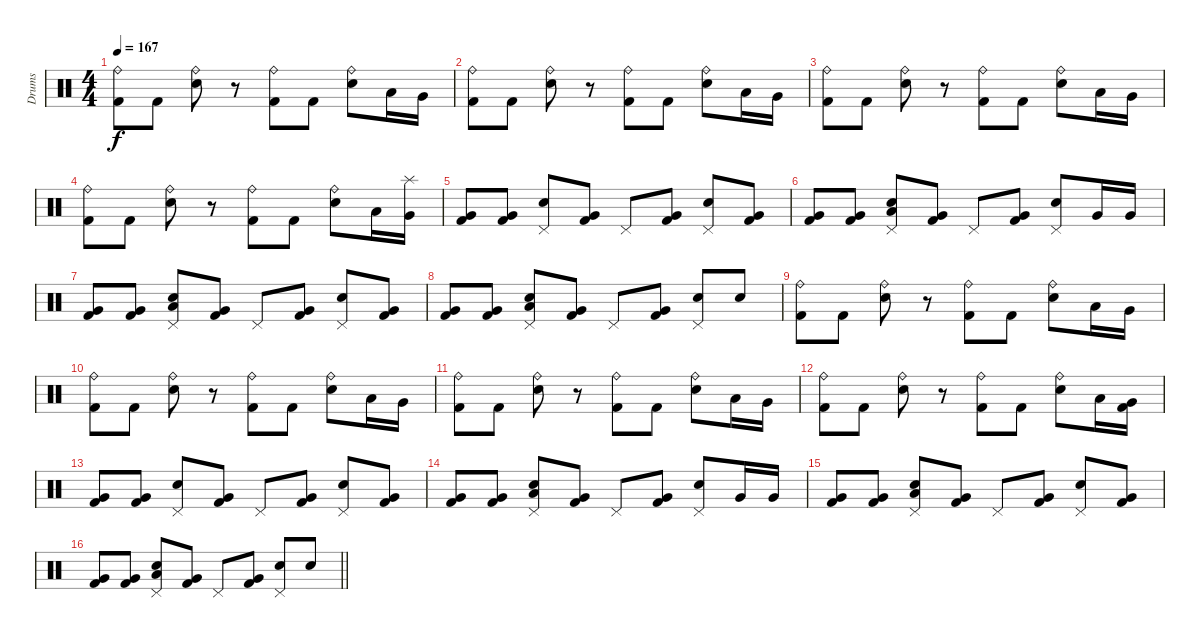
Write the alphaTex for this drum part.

\track ("Drums" "Drums") {instrument percussion}
\staff {score}
\articulation defaults
\ts (4 4)
\tempo 167
\clef neutral
\ks c
("Ride (bell)" "Kick (hit) 2").8{dy f} "Kick (hit) 2".8 ("Ride (bell)" "Electric Snare (hit)").8 r.8 ("Ride (bell)" "Kick (hit) 2").8 "Kick (hit) 2".8 ("Ride (bell)" "Electric Snare (hit)").8 "Low Tom (hit)".16 "Very Low Tom (hit)".16 |
("Ride (bell)" "Kick (hit) 2").8 "Kick (hit) 2".8 ("Ride (bell)" "Electric Snare (hit)").8 r.8 ("Ride (bell)" "Kick (hit) 2").8 "Kick (hit) 2".8 ("Ride (bell)" "Electric Snare (hit)").8 "Low Tom (hit)".16 "Very Low Tom (hit)".16 |
("Ride (bell)" "Kick (hit) 2").8 "Kick (hit) 2".8 ("Ride (bell)" "Electric Snare (hit)").8 r.8 ("Ride (bell)" "Kick (hit) 2").8 "Kick (hit) 2".8 ("Ride (bell)" "Electric Snare (hit)").8 "Low Tom (hit)".16 "Very Low Tom (hit)".16 |
("Ride (bell)" "Kick (hit) 2").8 "Kick (hit) 2".8 ("Ride (bell)" "Electric Snare (hit)").8 r.8 ("Ride (bell)" "Kick (hit) 2").8 "Kick (hit) 2".8 ("Ride (bell)" "Electric Snare (hit)").8 "Low Tom (hit)".16 ("Very Low Tom (hit)" "Splash (hit)").16 |
("Very Low Tom (hit)" "Kick (hit) 2").8 ("Very Low Tom (hit)" "Kick (hit) 2").8 ("Electric Snare (hit)" "Pedal Hi-Hat (hit)").8 ("Very Low Tom (hit)" "Kick (hit) 2").8 "Pedal Hi-Hat (hit)".8 ("Very Low Tom (hit)" "Kick (hit) 2").8 ("Electric Snare (hit)" "Pedal Hi-Hat (hit)").8 ("Very Low Tom (hit)" "Kick (hit) 2").8 |
("Very Low Tom (hit)" "Kick (hit) 2").8 ("Very Low Tom (hit)" "Kick (hit) 2").8 ("Electric Snare (hit)" "Pedal Hi-Hat (hit)" "Low Floor Tom (hit)").8 ("Very Low Tom (hit)" "Kick (hit) 2").8 "Pedal Hi-Hat (hit)".8 ("Very Low Tom (hit)" "Kick (hit) 2").8 ("Electric Snare (hit)" "Pedal Hi-Hat (hit)").8 "Very Low Tom (hit)".16 "Very Low Tom (hit)".16 |
("Very Low Tom (hit)" "Kick (hit) 2").8 ("Very Low Tom (hit)" "Kick (hit) 2").8 ("Electric Snare (hit)" "Pedal Hi-Hat (hit)" "Low Floor Tom (hit)").8 ("Very Low Tom (hit)" "Kick (hit) 2").8 "Pedal Hi-Hat (hit)".8 ("Very Low Tom (hit)" "Kick (hit) 2").8 ("Electric Snare (hit)" "Pedal Hi-Hat (hit)").8 ("Very Low Tom (hit)" "Kick (hit) 2").8 |
("Very Low Tom (hit)" "Kick (hit) 2").8 ("Very Low Tom (hit)" "Kick (hit) 2").8 ("Electric Snare (hit)" "Pedal Hi-Hat (hit)" "Low Floor Tom (hit)").8 ("Very Low Tom (hit)" "Kick (hit) 2").8 "Pedal Hi-Hat (hit)".8 ("Very Low Tom (hit)" "Kick (hit) 2").8 ("Electric Snare (hit)" "Pedal Hi-Hat (hit)").8 "Electric Snare (hit)".8 |
("Ride (bell)" "Kick (hit) 2").8 "Kick (hit) 2".8 ("Ride (bell)" "Electric Snare (hit)").8 r.8 ("Ride (bell)" "Kick (hit) 2").8 "Kick (hit) 2".8 ("Ride (bell)" "Electric Snare (hit)").8 "Low Tom (hit)".16 "Very Low Tom (hit)".16 |
("Ride (bell)" "Kick (hit) 2").8 "Kick (hit) 2".8 ("Ride (bell)" "Electric Snare (hit)").8 r.8 ("Ride (bell)" "Kick (hit) 2").8 "Kick (hit) 2".8 ("Ride (bell)" "Electric Snare (hit)").8 "Low Tom (hit)".16 "Very Low Tom (hit)".16 |
("Ride (bell)" "Kick (hit) 2").8 "Kick (hit) 2".8 ("Ride (bell)" "Electric Snare (hit)").8 r.8 ("Ride (bell)" "Kick (hit) 2").8 "Kick (hit) 2".8 ("Ride (bell)" "Electric Snare (hit)").8 "Low Tom (hit)".16 "Very Low Tom (hit)".16 |
("Ride (bell)" "Kick (hit) 2").8 "Kick (hit) 2".8 ("Ride (bell)" "Electric Snare (hit)").8 r.8 ("Ride (bell)" "Kick (hit) 2").8 "Kick (hit) 2".8 ("Ride (bell)" "Electric Snare (hit)").8 "Low Tom (hit)".16 ("Very Low Tom (hit)" "Kick (hit) 2").16 |
("Very Low Tom (hit)" "Kick (hit) 2").8 ("Very Low Tom (hit)" "Kick (hit) 2").8 ("Electric Snare (hit)" "Pedal Hi-Hat (hit)").8 ("Very Low Tom (hit)" "Kick (hit) 2").8 "Pedal Hi-Hat (hit)".8 ("Very Low Tom (hit)" "Kick (hit) 2").8 ("Electric Snare (hit)" "Pedal Hi-Hat (hit)").8 ("Very Low Tom (hit)" "Kick (hit) 2").8 |
("Very Low Tom (hit)" "Kick (hit) 2").8 ("Very Low Tom (hit)" "Kick (hit) 2").8 ("Electric Snare (hit)" "Pedal Hi-Hat (hit)" "Low Floor Tom (hit)").8 ("Very Low Tom (hit)" "Kick (hit) 2").8 "Pedal Hi-Hat (hit)".8 ("Very Low Tom (hit)" "Kick (hit) 2").8 ("Electric Snare (hit)" "Pedal Hi-Hat (hit)").8 "Very Low Tom (hit)".16 "Very Low Tom (hit)".16 |
("Very Low Tom (hit)" "Kick (hit) 2").8 ("Very Low Tom (hit)" "Kick (hit) 2").8 ("Electric Snare (hit)" "Pedal Hi-Hat (hit)" "Low Floor Tom (hit)").8 ("Very Low Tom (hit)" "Kick (hit) 2").8 "Pedal Hi-Hat (hit)".8 ("Very Low Tom (hit)" "Kick (hit) 2").8 ("Electric Snare (hit)" "Pedal Hi-Hat (hit)").8 ("Very Low Tom (hit)" "Kick (hit) 2").8 |
\barLineRight lightlight
("Very Low Tom (hit)" "Kick (hit) 2").8 ("Very Low Tom (hit)" "Kick (hit) 2").8 ("Electric Snare (hit)" "Pedal Hi-Hat (hit)" "Low Floor Tom (hit)").8 ("Very Low Tom (hit)" "Kick (hit) 2").8 "Pedal Hi-Hat (hit)".8 ("Very Low Tom (hit)" "Kick (hit) 2").8 ("Electric Snare (hit)" "Pedal Hi-Hat (hit)").8 "Electric Snare (hit)".8
